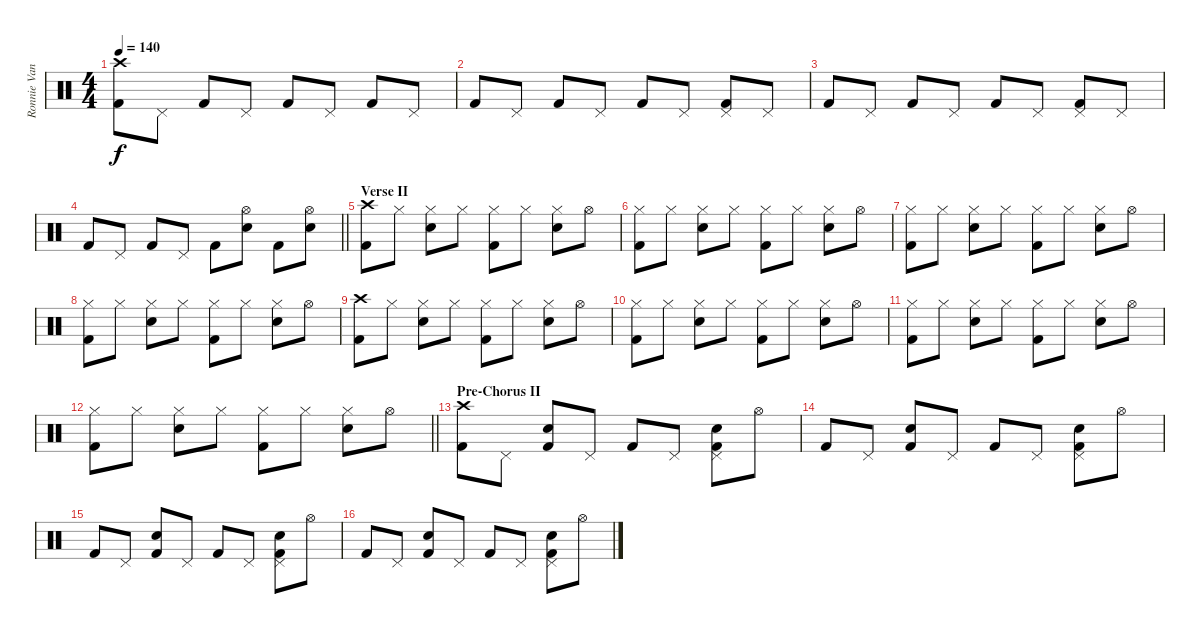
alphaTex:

\track ("Ronnie Vannucci Jr.'s drums" "Ronnie Van") {instrument percussion}
\staff {score}
\articulation defaults
\ts (4 4)
\tempo 140
\clef neutral
\ks c
("Kick (hit) 2" "Crash high (hit)").8{dy f} "Pedal Hi-Hat (hit)".8 "Kick (hit) 2".8 "Pedal Hi-Hat (hit)".8 "Kick (hit) 2".8 "Pedal Hi-Hat (hit)".8 "Kick (hit) 2".8 "Pedal Hi-Hat (hit)".8 |
"Kick (hit) 2".8 "Pedal Hi-Hat (hit)".8 "Kick (hit) 2".8 "Pedal Hi-Hat (hit)".8 "Kick (hit) 2".8 "Pedal Hi-Hat (hit)".8 ("Pedal Hi-Hat (hit)" "Kick (hit) 2").8 "Pedal Hi-Hat (hit)".8 |
"Kick (hit) 2".8 "Pedal Hi-Hat (hit)".8 "Kick (hit) 2".8 "Pedal Hi-Hat (hit)".8 "Kick (hit) 2".8 "Pedal Hi-Hat (hit)".8 ("Pedal Hi-Hat (hit)" "Kick (hit) 2").8 "Pedal Hi-Hat (hit)".8 |
\barLineRight lightlight "Kick (hit) 2".8 "Pedal Hi-Hat (hit)".8 "Kick (hit) 2".8 "Pedal Hi-Hat (hit)".8 "Kick (hit) 2".8
("Hi-Hat (open)" "Electric Snare (hit)").8 "Kick (hit) 2".8 ("Hi-Hat (open)" "Electric Snare (hit)").8 |
\section ("" "Verse II")
("Crash high (hit)" "Kick (hit) 2").8 "Hi-Hat (closed)".8 ("Hi-Hat (closed)" "Electric Snare (hit)").8 "Hi-Hat (closed)".8 ("Hi-Hat (closed)" "Kick (hit) 2").8 "Hi-Hat (closed)".8 ("Hi-Hat (closed)" "Electric Snare (hit)").8 "Hi-Hat (open)".8 |
("Hi-Hat (closed)" "Kick (hit) 2").8 "Hi-Hat (closed)".8 ("Hi-Hat (closed)" "Electric Snare (hit)").8 "Hi-Hat (closed)".8 ("Hi-Hat (closed)" "Kick (hit) 2").8 "Hi-Hat (closed)".8 ("Hi-Hat (closed)" "Electric Snare (hit)").8 "Hi-Hat (open)".8 |
("Hi-Hat (closed)" "Kick (hit) 2").8 "Hi-Hat (closed)".8 ("Hi-Hat (closed)" "Electric Snare (hit)").8 "Hi-Hat (closed)".8 ("Hi-Hat (closed)" "Kick (hit) 2").8 "Hi-Hat (closed)".8 ("Hi-Hat (closed)" "Electric Snare (hit)").8 "Hi-Hat (open)".8 |
("Hi-Hat (closed)" "Kick (hit) 2").8 "Hi-Hat (closed)".8 ("Hi-Hat (closed)" "Electric Snare (hit)").8 "Hi-Hat (closed)".8 ("Hi-Hat (closed)" "Kick (hit) 2").8 "Hi-Hat (closed)".8 ("Hi-Hat (closed)" "Electric Snare (hit)").8 "Hi-Hat (open)".8 |
("Crash high (hit)" "Kick (hit) 2").8 "Hi-Hat (closed)".8 ("Hi-Hat (closed)" "Electric Snare (hit)").8 "Hi-Hat (closed)".8 ("Hi-Hat (closed)" "Kick (hit) 2").8 "Hi-Hat (closed)".8 ("Hi-Hat (closed)" "Electric Snare (hit)").8 "Hi-Hat (open)".8 |
("Hi-Hat (closed)" "Kick (hit) 2").8 "Hi-Hat (closed)".8 ("Hi-Hat (closed)" "Electric Snare (hit)").8 "Hi-Hat (closed)".8 ("Hi-Hat (closed)" "Kick (hit) 2").8 "Hi-Hat (closed)".8 ("Hi-Hat (closed)" "Electric Snare (hit)").8 "Hi-Hat (open)".8 |
("Hi-Hat (closed)" "Kick (hit) 2").8 "Hi-Hat (closed)".8 ("Hi-Hat (closed)" "Electric Snare (hit)").8 "Hi-Hat (closed)".8 ("Hi-Hat (closed)" "Kick (hit) 2").8 "Hi-Hat (closed)".8 ("Hi-Hat (closed)" "Electric Snare (hit)").8 "Hi-Hat (open)".8 |
\barLineRight lightlight
("Hi-Hat (closed)" "Kick (hit) 2").8 "Hi-Hat (closed)".8 ("Hi-Hat (closed)" "Electric Snare (hit)").8 "Hi-Hat (closed)".8 ("Hi-Hat (closed)" "Kick (hit) 2").8 "Hi-Hat (closed)".8 ("Hi-Hat (closed)" "Electric Snare (hit)").8 "Hi-Hat (open)".8 |
\section ("" "Pre-Chorus II")
("Crash high (hit)" "Kick (hit) 2").8 "Pedal Hi-Hat (hit)".8 ("Kick (hit) 2" "Electric Snare (hit)").8 "Pedal Hi-Hat (hit)".8 "Kick (hit) 2".8 "Pedal Hi-Hat (hit)".8 ("Pedal Hi-Hat (hit)" "Kick (hit) 2" "Electric Snare (hit)").8 "Hi-Hat (open)".8 |
"Kick (hit) 2".8 "Pedal Hi-Hat (hit)".8 ("Kick (hit) 2" "Electric Snare (hit)").8 "Pedal Hi-Hat (hit)".8 "Kick (hit) 2".8 "Pedal Hi-Hat (hit)".8 ("Pedal Hi-Hat (hit)" "Kick (hit) 2" "Electric Snare (hit)").8 "Hi-Hat (open)".8 |
"Kick (hit) 2".8 "Pedal Hi-Hat (hit)".8 ("Kick (hit) 2" "Electric Snare (hit)").8 "Pedal Hi-Hat (hit)".8 "Kick (hit) 2".8 "Pedal Hi-Hat (hit)".8 ("Pedal Hi-Hat (hit)" "Kick (hit) 2" "Electric Snare (hit)").8 "Hi-Hat (open)".8 |
"Kick (hit) 2".8 "Pedal Hi-Hat (hit)".8 ("Kick (hit) 2" "Electric Snare (hit)").8 "Pedal Hi-Hat (hit)".8 "Kick (hit) 2".8 "Pedal Hi-Hat (hit)".8 ("Pedal Hi-Hat (hit)" "Kick (hit) 2" "Electric Snare (hit)").8 "Hi-Hat (open)".8
